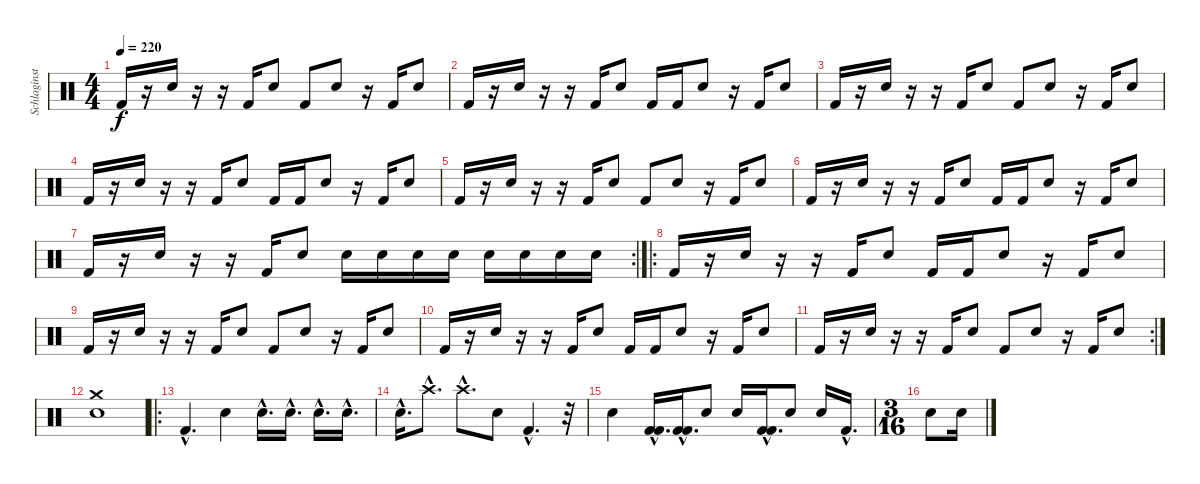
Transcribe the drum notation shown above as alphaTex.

\track ("Schlaginstrumente - Auswahl" "Schlaginst") {instrument percussion}
\staff {score}
\articulation defaults
\ts (4 4)
\tempo 220
\clef neutral
\ks c "Kick (hit) 2".16{dy f}
r.16 "Snare (hit) 2".16 r.16 r.16 "Kick (hit) 2".16 "Snare (hit) 2".8 "Kick (hit) 2".8 "Snare (hit) 2".8 r.16 "Kick (hit) 2".16 "Snare (hit) 2".8 |
"Kick (hit) 2".16 r.16 "Snare (hit) 2".16 r.16 r.16 "Kick (hit) 2".16 "Snare (hit) 2".8 "Kick (hit) 2".16 "Kick (hit) 2".16 "Snare (hit) 2".8 r.16 "Kick (hit) 2".16 "Snare (hit) 2".8 |
"Kick (hit) 2".16 r.16 "Snare (hit) 2".16 r.16 r.16 "Kick (hit) 2".16 "Snare (hit) 2".8 "Kick (hit) 2".8 "Snare (hit) 2".8 r.16 "Kick (hit) 2".16 "Snare (hit) 2".8 |
"Kick (hit) 2".16 r.16 "Snare (hit) 2".16 r.16 r.16 "Kick (hit) 2".16 "Snare (hit) 2".8 "Kick (hit) 2".16 "Kick (hit) 2".16 "Snare (hit) 2".8 r.16 "Kick (hit) 2".16 "Snare (hit) 2".8 |
"Kick (hit) 2".16 r.16 "Snare (hit) 2".16 r.16 r.16 "Kick (hit) 2".16 "Snare (hit) 2".8 "Kick (hit) 2".8 "Snare (hit) 2".8 r.16 "Kick (hit) 2".16 "Snare (hit) 2".8 |
"Kick (hit) 2".16 r.16 "Snare (hit) 2".16 r.16 r.16 "Kick (hit) 2".16 "Snare (hit) 2".8 "Kick (hit) 2".16 "Kick (hit) 2".16 "Snare (hit) 2".8 r.16 "Kick (hit) 2".16 "Snare (hit) 2".8 |
\rc 2 "Kick (hit) 2".16
r.16 "Snare (hit) 2".16 r.16 r.16 "Kick (hit) 2".16 "Snare (hit) 2".8 "Snare (hit) 2".16 "Snare (hit) 2".16 "Snare (hit) 2".16 "Snare (hit) 2".16 "Snare (hit) 2".16 "Snare (hit) 2".16 "Snare (hit) 2".16 "Snare (hit) 2".16 |
\ro "Kick (hit) 2".16
r.16 "Snare (hit) 2".16 r.16 r.16 "Kick (hit) 2".16 "Snare (hit) 2".8 "Kick (hit) 2".16 "Kick (hit) 2".16 "Snare (hit) 2".8 r.16 "Kick (hit) 2".16 "Snare (hit) 2".8 |
"Kick (hit) 2".16 r.16 "Snare (hit) 2".16 r.16 r.16 "Kick (hit) 2".16 "Snare (hit) 2".8 "Kick (hit) 2".8 "Snare (hit) 2".8 r.16 "Kick (hit) 2".16 "Snare (hit) 2".8 |
"Kick (hit) 2".16 r.16 "Snare (hit) 2".16 r.16 r.16 "Kick (hit) 2".16 "Snare (hit) 2".8 "Kick (hit) 2".16 "Kick (hit) 2".16 "Snare (hit) 2".8 r.16 "Kick (hit) 2".16 "Snare (hit) 2".8 |
\rc 2 "Kick (hit) 2".16
r.16 "Snare (hit) 2".16 r.16 r.16 "Kick (hit) 2".16 "Snare (hit) 2".8 "Kick (hit) 2".8 "Snare (hit) 2".8 r.16 "Kick (hit) 2".16 "Snare (hit) 2".8 |
("Snare (hit) 2" "Crash medium (hit)").1 |
\ro "Kick (hit) 2"{hac}.4{d} "Snare (hit) 2".4 "Snare (hit) 2"{hac}.16{d} "Snare (hit) 2"{hac}.16{d} "Snare (hit) 2"{hac}.16{d} "Snare (hit) 2"{hac}.16{d}
|
"Snare (hit) 2"{hac}.16{d} "Crash high (hit)"{hac}.8{d} "Crash high (hit)"{hac}.8{d} "Snare (hit) 2".8 "Kick (hit) 2"{hac}.4{d} r.32 |
"Snare (hit) 2".4 ("Kick (hit) 2"{hac} "Kick (hit) 2"{hac}).16{d} ("Kick (hit) 2"{hac} "Kick (hit) 2"{hac}).16{d} "Snare (hit) 2".8 "Snare (hit) 2".16 ("Kick (hit) 2"{hac} "Kick (hit) 2"{hac}).16{d} "Snare (hit) 2".8 "Snare (hit) 2".16 "Kick (hit) 2"{hac}.16{d} |
\ts (3 16)
"Snare (hit) 2".8 "Snare (hit) 2".16
